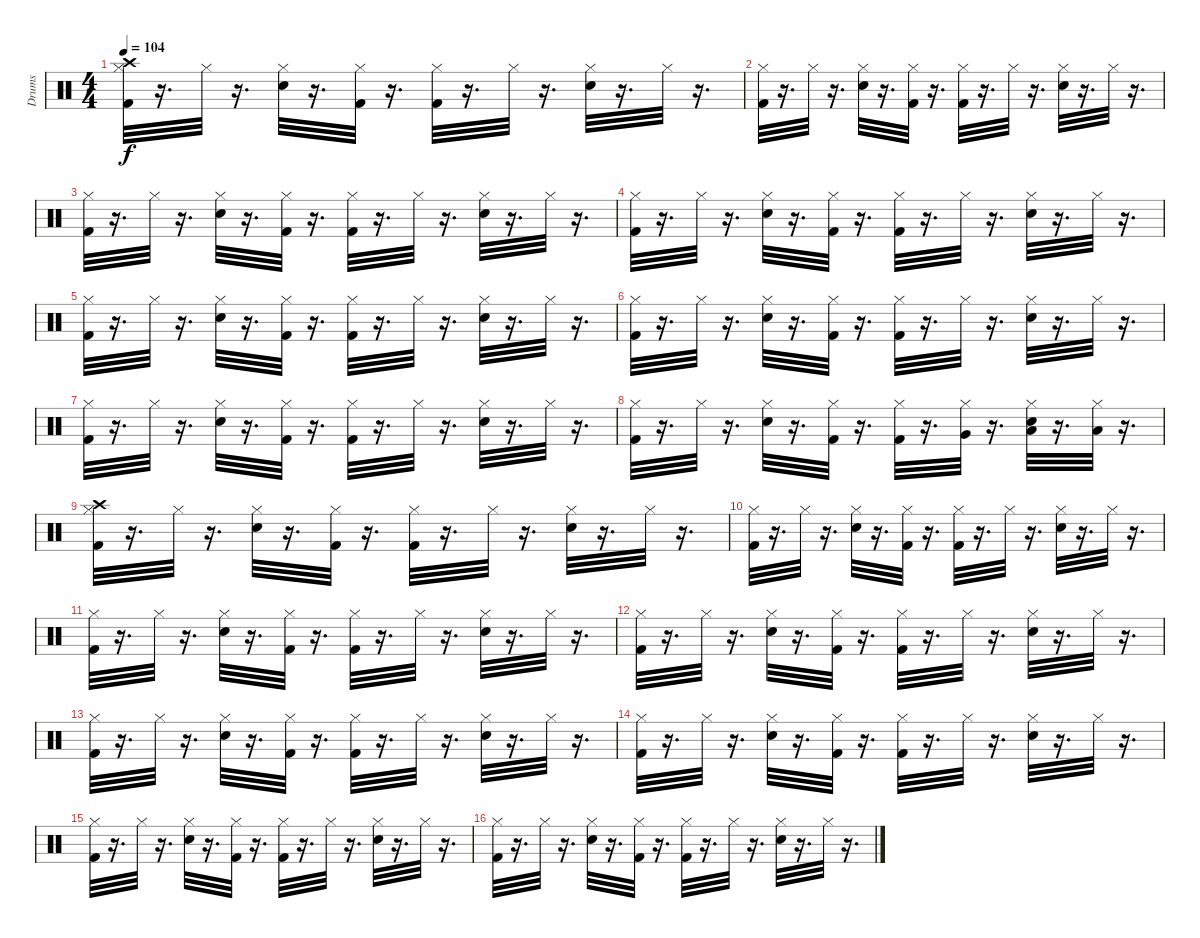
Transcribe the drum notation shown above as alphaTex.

\track ("Drums" "Drums") {instrument percussion}
\staff {score}
\articulation defaults
\ts (4 4)
\tempo 104
\clef neutral
\ks c
("Crash high (hit)" "Hi-Hat (closed)" "Kick (hit) 2").32{dy f} r.16{d} "Hi-Hat (closed)".32 r.16{d} ("Hi-Hat (closed)" "Snare (hit) 2").32 r.16{d} ("Kick (hit) 2" "Hi-Hat (closed)").32 r.16{d} ("Hi-Hat (closed)" "Kick (hit) 2").32 r.16{d} "Hi-Hat (closed)".32 r.16{d} ("Hi-Hat (closed)" "Snare (hit) 2").32 r.16{d} "Hi-Hat (closed)".32 r.16{d} |
("Hi-Hat (closed)" "Kick (hit) 2").32 r.16{d} "Hi-Hat (closed)".32 r.16{d} ("Hi-Hat (closed)" "Snare (hit) 2").32 r.16{d} ("Kick (hit) 2" "Hi-Hat (closed)").32 r.16{d} ("Hi-Hat (closed)" "Kick (hit) 2").32 r.16{d} "Hi-Hat (closed)".32 r.16{d} ("Hi-Hat (closed)" "Snare (hit) 2").32 r.16{d} "Hi-Hat (closed)".32 r.16{d} |
("Hi-Hat (closed)" "Kick (hit) 2").32 r.16{d} "Hi-Hat (closed)".32 r.16{d} ("Hi-Hat (closed)" "Snare (hit) 2").32 r.16{d} ("Kick (hit) 2" "Hi-Hat (closed)").32 r.16{d} ("Hi-Hat (closed)" "Kick (hit) 2").32 r.16{d} "Hi-Hat (closed)".32 r.16{d} ("Hi-Hat (closed)" "Snare (hit) 2").32 r.16{d} "Hi-Hat (closed)".32 r.16{d} |
("Hi-Hat (closed)" "Kick (hit) 2").32 r.16{d} "Hi-Hat (closed)".32 r.16{d} ("Hi-Hat (closed)" "Snare (hit) 2").32 r.16{d} ("Kick (hit) 2" "Hi-Hat (closed)").32 r.16{d} ("Hi-Hat (closed)" "Kick (hit) 2").32 r.16{d} "Hi-Hat (closed)".32 r.16{d} ("Hi-Hat (closed)" "Snare (hit) 2").32 r.16{d} "Hi-Hat (closed)".32 r.16{d} |
("Hi-Hat (closed)" "Kick (hit) 2").32 r.16{d} "Hi-Hat (closed)".32 r.16{d} ("Hi-Hat (closed)" "Snare (hit) 2").32 r.16{d} ("Kick (hit) 2" "Hi-Hat (closed)").32 r.16{d} ("Hi-Hat (closed)" "Kick (hit) 2").32 r.16{d} "Hi-Hat (closed)".32 r.16{d} ("Hi-Hat (closed)" "Snare (hit) 2").32 r.16{d} "Hi-Hat (closed)".32 r.16{d} |
("Hi-Hat (closed)" "Kick (hit) 2").32 r.16{d} "Hi-Hat (closed)".32 r.16{d} ("Hi-Hat (closed)" "Snare (hit) 2").32 r.16{d} ("Kick (hit) 2" "Hi-Hat (closed)").32 r.16{d} ("Hi-Hat (closed)" "Kick (hit) 2").32 r.16{d} "Hi-Hat (closed)".32 r.16{d} ("Hi-Hat (closed)" "Snare (hit) 2").32 r.16{d} "Hi-Hat (closed)".32 r.16{d} |
("Hi-Hat (closed)" "Kick (hit) 2").32 r.16{d} "Hi-Hat (closed)".32 r.16{d} ("Hi-Hat (closed)" "Snare (hit) 2").32 r.16{d} ("Kick (hit) 2" "Hi-Hat (closed)").32 r.16{d} ("Hi-Hat (closed)" "Kick (hit) 2").32 r.16{d} "Hi-Hat (closed)".32 r.16{d} ("Hi-Hat (closed)" "Snare (hit) 2").32 r.16{d} "Hi-Hat (closed)".32 r.16{d} |
("Hi-Hat (closed)" "Kick (hit) 2").32 r.16{d} "Hi-Hat (closed)".32 r.16{d} ("Hi-Hat (closed)" "Snare (hit) 2").32 r.16{d} ("Kick (hit) 2" "Hi-Hat (closed)").32 r.16{d} ("Hi-Hat (closed)" "Kick (hit) 2").32 r.16{d} ("Very Low Tom (hit)" "Hi-Hat (closed)").32 r.16{d} ("Low Tom (hit)" "Hi-Hat (closed)" "Snare (hit) 2").32 r.16{d} ("Low Floor Tom (hit)" "Hi-Hat (closed)").32 r.16{d} |
("Crash high (hit)" "Hi-Hat (closed)" "Kick (hit) 2").32 r.16{d} "Hi-Hat (closed)".32 r.16{d} ("Hi-Hat (closed)" "Snare (hit) 2").32 r.16{d} ("Kick (hit) 2" "Hi-Hat (closed)").32 r.16{d} ("Hi-Hat (closed)" "Kick (hit) 2").32 r.16{d} "Hi-Hat (closed)".32 r.16{d} ("Hi-Hat (closed)" "Snare (hit) 2").32 r.16{d} "Hi-Hat (closed)".32 r.16{d} |
("Hi-Hat (closed)" "Kick (hit) 2").32 r.16{d} "Hi-Hat (closed)".32 r.16{d} ("Hi-Hat (closed)" "Snare (hit) 2").32 r.16{d} ("Kick (hit) 2" "Hi-Hat (closed)").32 r.16{d} ("Hi-Hat (closed)" "Kick (hit) 2").32 r.16{d} "Hi-Hat (closed)".32 r.16{d} ("Hi-Hat (closed)" "Snare (hit) 2").32 r.16{d} "Hi-Hat (closed)".32 r.16{d} |
("Hi-Hat (closed)" "Kick (hit) 2").32 r.16{d} "Hi-Hat (closed)".32 r.16{d} ("Hi-Hat (closed)" "Snare (hit) 2").32 r.16{d} ("Kick (hit) 2" "Hi-Hat (closed)").32 r.16{d} ("Hi-Hat (closed)" "Kick (hit) 2").32 r.16{d} "Hi-Hat (closed)".32 r.16{d} ("Hi-Hat (closed)" "Snare (hit) 2").32 r.16{d} "Hi-Hat (closed)".32 r.16{d} |
("Hi-Hat (closed)" "Kick (hit) 2").32 r.16{d} "Hi-Hat (closed)".32 r.16{d} ("Hi-Hat (closed)" "Snare (hit) 2").32 r.16{d} ("Kick (hit) 2" "Hi-Hat (closed)").32 r.16{d} ("Hi-Hat (closed)" "Kick (hit) 2").32 r.16{d} "Hi-Hat (closed)".32 r.16{d} ("Hi-Hat (closed)" "Snare (hit) 2").32 r.16{d} "Hi-Hat (closed)".32 r.16{d} |
("Hi-Hat (closed)" "Kick (hit) 2").32 r.16{d} "Hi-Hat (closed)".32 r.16{d} ("Hi-Hat (closed)" "Snare (hit) 2").32 r.16{d} ("Kick (hit) 2" "Hi-Hat (closed)").32 r.16{d} ("Hi-Hat (closed)" "Kick (hit) 2").32 r.16{d} "Hi-Hat (closed)".32 r.16{d} ("Hi-Hat (closed)" "Snare (hit) 2").32 r.16{d} "Hi-Hat (closed)".32 r.16{d} |
("Hi-Hat (closed)" "Kick (hit) 2").32 r.16{d} "Hi-Hat (closed)".32 r.16{d} ("Hi-Hat (closed)" "Snare (hit) 2").32 r.16{d} ("Kick (hit) 2" "Hi-Hat (closed)").32 r.16{d} ("Hi-Hat (closed)" "Kick (hit) 2").32 r.16{d} "Hi-Hat (closed)".32 r.16{d} ("Hi-Hat (closed)" "Snare (hit) 2").32 r.16{d} "Hi-Hat (closed)".32 r.16{d} |
("Hi-Hat (closed)" "Kick (hit) 2").32 r.16{d} "Hi-Hat (closed)".32 r.16{d} ("Hi-Hat (closed)" "Snare (hit) 2").32 r.16{d} ("Kick (hit) 2" "Hi-Hat (closed)").32 r.16{d} ("Hi-Hat (closed)" "Kick (hit) 2").32 r.16{d} "Hi-Hat (closed)".32 r.16{d} ("Hi-Hat (closed)" "Snare (hit) 2").32 r.16{d} "Hi-Hat (closed)".32 r.16{d} |
("Hi-Hat (closed)" "Kick (hit) 2").32 r.16{d} "Hi-Hat (closed)".32 r.16{d} ("Hi-Hat (closed)" "Snare (hit) 2").32 r.16{d} ("Kick (hit) 2" "Hi-Hat (closed)").32 r.16{d} ("Hi-Hat (closed)" "Kick (hit) 2").32 r.16{d} "Hi-Hat (closed)".32 r.16{d} ("Hi-Hat (closed)" "Snare (hit) 2").32 r.16{d} "Hi-Hat (closed)".32 r.16{d}
